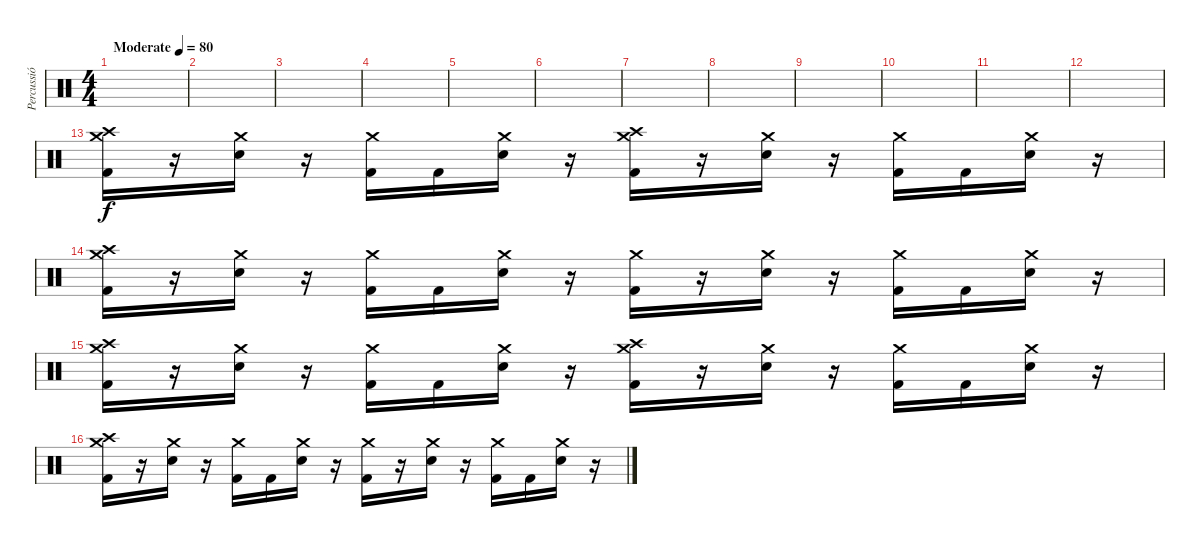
\track ("Percussió" "Percussió") {instrument percussion}
\staff {score}
\articulation defaults
\ts (4 4)
\tempo (80 "Moderate")
\clef neutral
\ks c
|
|
|
|
|
|
|
|
|
|
|
|
("Crash high (hit)" "Crash medium (hit)" "Kick (hit) 2").16 r.16 ("Crash medium (hit)" "Electric Snare (hit)").16 r.16 ("Crash medium (hit)" "Kick (hit) 2").16 "Kick (hit) 2".16 ("Crash medium (hit)" "Electric Snare (hit)").16 r.16 ("Crash high (hit)" "Crash medium (hit)" "Kick (hit) 2").16 r.16 ("Crash medium (hit)" "Electric Snare (hit)").16 r.16 ("Crash medium (hit)" "Kick (hit) 2").16 "Kick (hit) 2".16 ("Crash medium (hit)" "Electric Snare (hit)").16 r.16 |
("Crash high (hit)" "Crash medium (hit)" "Kick (hit) 2").16 r.16 ("Crash medium (hit)" "Electric Snare (hit)").16 r.16 ("Crash medium (hit)" "Kick (hit) 2").16 "Kick (hit) 2".16 ("Crash medium (hit)" "Electric Snare (hit)").16 r.16 ("Crash medium (hit)" "Kick (hit) 2").16 r.16 ("Crash medium (hit)" "Electric Snare (hit)").16 r.16 ("Crash medium (hit)" "Kick (hit) 2").16 "Kick (hit) 2".16 ("Crash medium (hit)" "Electric Snare (hit)").16 r.16 |
("Crash high (hit)" "Crash medium (hit)" "Kick (hit) 2").16 r.16 ("Crash medium (hit)" "Electric Snare (hit)").16 r.16 ("Crash medium (hit)" "Kick (hit) 2").16 "Kick (hit) 2".16 ("Crash medium (hit)" "Electric Snare (hit)").16 r.16 ("Crash high (hit)" "Crash medium (hit)" "Kick (hit) 2").16 r.16 ("Crash medium (hit)" "Electric Snare (hit)").16 r.16 ("Crash medium (hit)" "Kick (hit) 2").16 "Kick (hit) 2".16 ("Crash medium (hit)" "Electric Snare (hit)").16 r.16 |
("Crash high (hit)" "Crash medium (hit)" "Kick (hit) 2").16 r.16 ("Crash medium (hit)" "Electric Snare (hit)").16 r.16 ("Crash medium (hit)" "Kick (hit) 2").16 "Kick (hit) 2".16 ("Crash medium (hit)" "Electric Snare (hit)").16 r.16 ("Crash medium (hit)" "Kick (hit) 2").16 r.16 ("Crash medium (hit)" "Electric Snare (hit)").16 r.16 ("Crash medium (hit)" "Kick (hit) 2").16 "Kick (hit) 2".16 ("Crash medium (hit)" "Electric Snare (hit)").16 r.16
